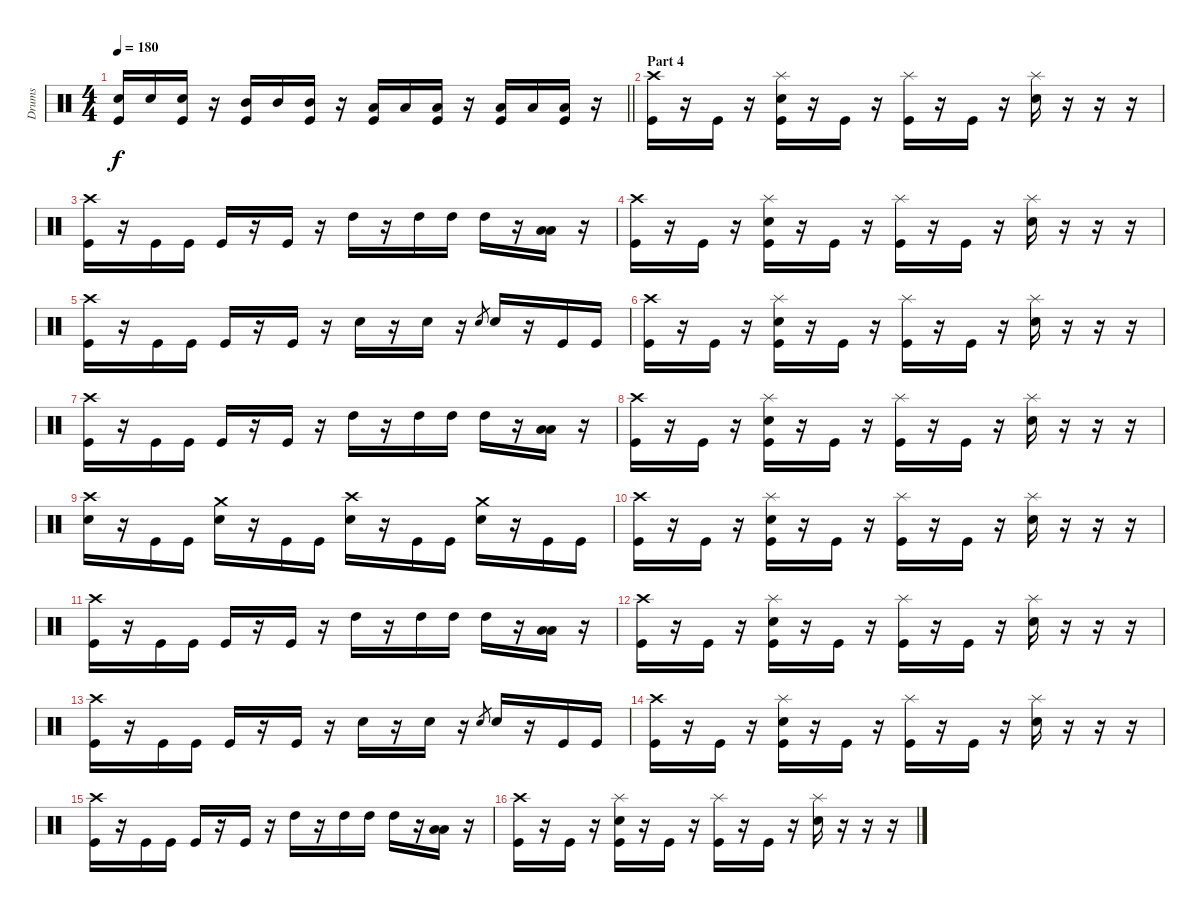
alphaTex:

\track ("Drums" "Drums") {instrument percussion}
\staff {score}
\articulation defaults
\ts (4 4)
\tempo 180
\clef neutral
\barLineRight lightlight
\ks c
("Electric Snare (hit)" "Kick (hit)").16{dy f} "Electric Snare (hit)".16 ("Electric Snare (hit)" "Kick (hit)").16 r.16 ("Mid Tom (hit)" "Kick (hit)").16 "Mid Tom (hit)".16 ("Mid Tom (hit)" "Kick (hit)").16 r.16 ("Low Tom (hit)" "Kick (hit)").16 "Low Tom (hit)".16 ("Low Tom (hit)" "Kick (hit)").16 r.16 ("Low Floor Tom (hit)" "Kick (hit)").16 "Low Floor Tom (hit)".16 ("Low Floor Tom (hit)" "Kick (hit)").16 r.16 |
\section ("" "Part 4")
("Crash high (hit)" "Kick (hit)").16 r.16 "Kick (hit)".16 r.16 ("Splash (hit)" "Electric Snare (hit)" "Kick (hit)").16 r.16 "Kick (hit)".16 r.16 ("Splash (hit)" "Kick (hit)").16 r.16 "Kick (hit)".16 r.16 ("Splash (hit)" "Electric Snare (hit)").16 r.16 r.16 r.16 |
("Crash high (hit)" "Kick (hit)").16 r.16 "Kick (hit)".16 "Kick (hit)".16 "Kick (hit)".16 r.16 "Kick (hit)".16 r.16 "High Tom (hit)".16 r.16 "High Tom (hit)".16 "High Tom (hit)".16 "High Tom (hit)".16 r.16 ("Low Tom (hit)" "Low Floor Tom (hit)").16 r.16 |
("Crash high (hit)" "Kick (hit)").16 r.16 "Kick (hit)".16 r.16 ("Splash (hit)" "Electric Snare (hit)" "Kick (hit)").16 r.16 "Kick (hit)".16 r.16 ("Splash (hit)" "Kick (hit)").16 r.16 "Kick (hit)".16 r.16 ("Splash (hit)" "Electric Snare (hit)").16 r.16 r.16 r.16 |
("Crash high (hit)" "Kick (hit)").16 r.16 "Kick (hit)".16 "Kick (hit)".16 "Kick (hit)".16 r.16 "Kick (hit)".16 r.16 "Electric Snare (hit)".16 r.16 "Electric Snare (hit)".16 r.16 "Electric Snare (hit)".8{gr} "Electric Snare (hit)".16 r.16 "Kick (hit)".16 "Kick (hit)".16 |
("Crash high (hit)" "Kick (hit)").16 r.16 "Kick (hit)".16 r.16 ("Splash (hit)" "Electric Snare (hit)" "Kick (hit)").16 r.16 "Kick (hit)".16 r.16 ("Splash (hit)" "Kick (hit)").16 r.16 "Kick (hit)".16 r.16 ("Splash (hit)" "Electric Snare (hit)").16 r.16 r.16 r.16 |
("Crash high (hit)" "Kick (hit)").16 r.16 "Kick (hit)".16 "Kick (hit)".16 "Kick (hit)".16 r.16 "Kick (hit)".16 r.16 "High Tom (hit)".16 r.16 "High Tom (hit)".16 "High Tom (hit)".16 "High Tom (hit)".16 r.16 ("Low Tom (hit)" "Low Floor Tom (hit)").16 r.16 |
("Crash high (hit)" "Kick (hit)").16 r.16 "Kick (hit)".16 r.16 ("Splash (hit)" "Electric Snare (hit)" "Kick (hit)").16 r.16 "Kick (hit)".16 r.16 ("Splash (hit)" "Kick (hit)").16 r.16 "Kick (hit)".16 r.16 ("Splash (hit)" "Electric Snare (hit)").16 r.16 r.16 r.16 |
("Crash high (hit)" "Electric Snare (hit)").16 r.16 "Kick (hit)".16 "Kick (hit)".16 ("Crash medium (hit)" "Electric Snare (hit)").16 r.16 "Kick (hit)".16 "Kick (hit)".16 ("Crash high (hit)" "Electric Snare (hit)").16 r.16 "Kick (hit)".16 "Kick (hit)".16 ("Crash medium (hit)" "Electric Snare (hit)").16 r.16 "Kick (hit)".16 "Kick (hit)".16 |
("Crash high (hit)" "Kick (hit)").16 r.16 "Kick (hit)".16 r.16 ("Splash (hit)" "Electric Snare (hit)" "Kick (hit)").16 r.16 "Kick (hit)".16 r.16 ("Splash (hit)" "Kick (hit)").16 r.16 "Kick (hit)".16 r.16 ("Splash (hit)" "Electric Snare (hit)").16 r.16 r.16 r.16 |
("Crash high (hit)" "Kick (hit)").16 r.16 "Kick (hit)".16 "Kick (hit)".16 "Kick (hit)".16 r.16 "Kick (hit)".16 r.16 "High Tom (hit)".16 r.16 "High Tom (hit)".16 "High Tom (hit)".16 "High Tom (hit)".16 r.16 ("Low Tom (hit)" "Low Floor Tom (hit)").16 r.16 |
("Crash high (hit)" "Kick (hit)").16 r.16 "Kick (hit)".16 r.16 ("Splash (hit)" "Electric Snare (hit)" "Kick (hit)").16 r.16 "Kick (hit)".16 r.16 ("Splash (hit)" "Kick (hit)").16 r.16 "Kick (hit)".16 r.16 ("Splash (hit)" "Electric Snare (hit)").16 r.16 r.16 r.16 |
("Crash high (hit)" "Kick (hit)").16 r.16 "Kick (hit)".16 "Kick (hit)".16 "Kick (hit)".16 r.16 "Kick (hit)".16 r.16 "Electric Snare (hit)".16 r.16 "Electric Snare (hit)".16 r.16 "Electric Snare (hit)".8{gr} "Electric Snare (hit)".16 r.16 "Kick (hit)".16 "Kick (hit)".16 |
("Crash high (hit)" "Kick (hit)").16 r.16 "Kick (hit)".16 r.16 ("Splash (hit)" "Electric Snare (hit)" "Kick (hit)").16 r.16 "Kick (hit)".16 r.16 ("Splash (hit)" "Kick (hit)").16 r.16 "Kick (hit)".16 r.16 ("Splash (hit)" "Electric Snare (hit)").16 r.16 r.16 r.16 |
("Crash high (hit)" "Kick (hit)").16 r.16 "Kick (hit)".16 "Kick (hit)".16 "Kick (hit)".16 r.16 "Kick (hit)".16 r.16 "High Tom (hit)".16 r.16 "High Tom (hit)".16 "High Tom (hit)".16 "High Tom (hit)".16 r.16 ("Low Tom (hit)" "Low Floor Tom (hit)").16 r.16 |
("Crash high (hit)" "Kick (hit)").16 r.16 "Kick (hit)".16 r.16 ("Splash (hit)" "Electric Snare (hit)" "Kick (hit)").16 r.16 "Kick (hit)".16 r.16 ("Splash (hit)" "Kick (hit)").16 r.16 "Kick (hit)".16 r.16 ("Splash (hit)" "Electric Snare (hit)").16 r.16 r.16 r.16
